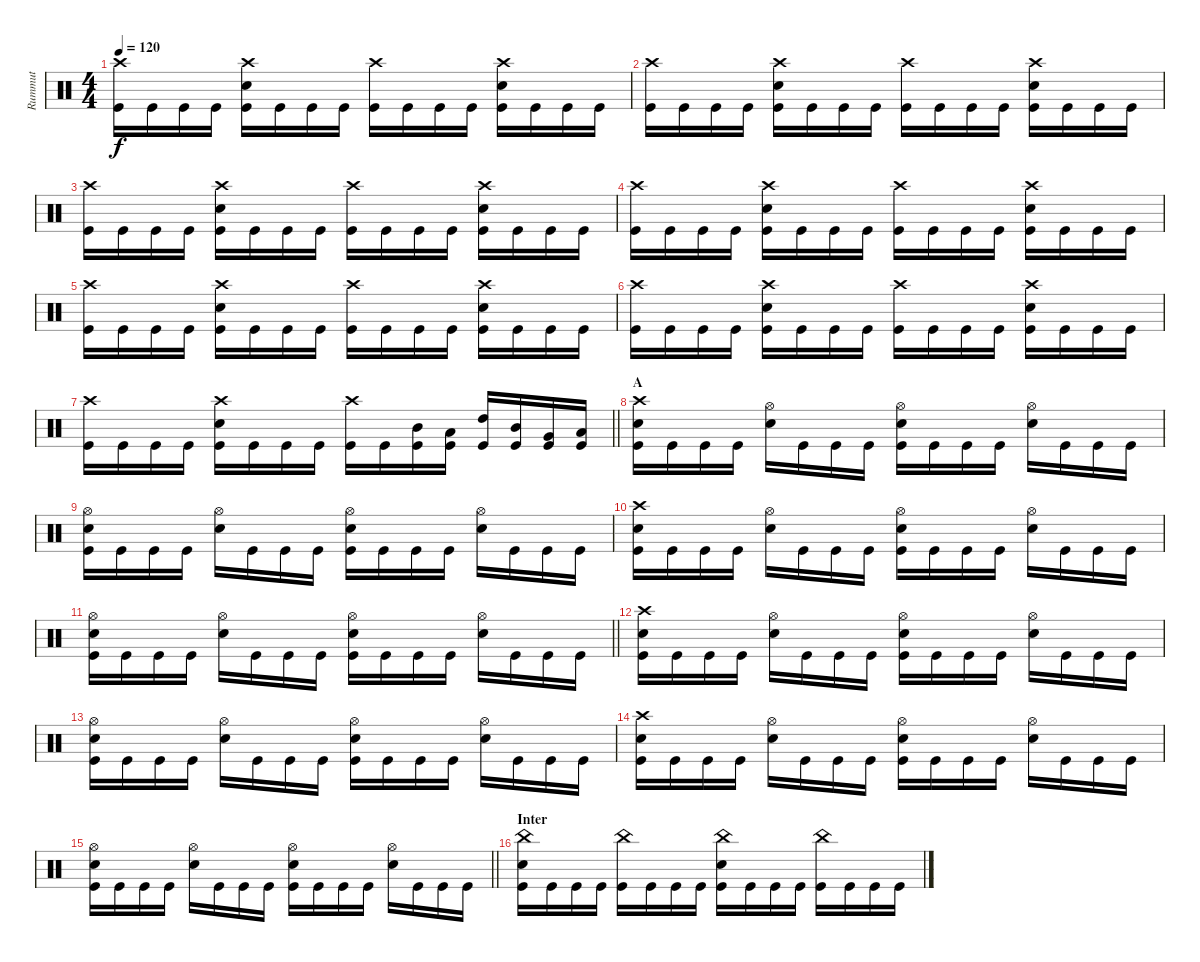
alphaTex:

\track ("Rummut" "Rummut") {instrument percussion}
\staff {score}
\articulation defaults
\ts (4 4)
\tempo 120
\clef neutral
\ks c
("Crash high (hit)" "Kick (hit)").16{dy f} "Kick (hit)".16 "Kick (hit)".16 "Kick (hit)".16 ("Crash high (hit)" "Snare (hit) 2" "Kick (hit)").16 "Kick (hit)".16 "Kick (hit)".16 "Kick (hit)".16 ("Crash high (hit)" "Kick (hit)").16 "Kick (hit)".16 "Kick (hit)".16 "Kick (hit)".16 ("Crash high (hit)" "Snare (hit) 2" "Kick (hit)").16 "Kick (hit)".16 "Kick (hit)".16 "Kick (hit)".16 |
("Crash high (hit)" "Kick (hit)").16 "Kick (hit)".16 "Kick (hit)".16 "Kick (hit)".16 ("Crash high (hit)" "Snare (hit) 2" "Kick (hit)").16 "Kick (hit)".16 "Kick (hit)".16 "Kick (hit)".16 ("Crash high (hit)" "Kick (hit)").16 "Kick (hit)".16 "Kick (hit)".16 "Kick (hit)".16 ("Crash high (hit)" "Snare (hit) 2" "Kick (hit)").16 "Kick (hit)".16 "Kick (hit)".16 "Kick (hit)".16 |
("Crash high (hit)" "Kick (hit)").16 "Kick (hit)".16 "Kick (hit)".16 "Kick (hit)".16 ("Crash high (hit)" "Snare (hit) 2" "Kick (hit)").16 "Kick (hit)".16 "Kick (hit)".16 "Kick (hit)".16 ("Crash high (hit)" "Kick (hit)").16 "Kick (hit)".16 "Kick (hit)".16 "Kick (hit)".16 ("Crash high (hit)" "Snare (hit) 2" "Kick (hit)").16 "Kick (hit)".16 "Kick (hit)".16 "Kick (hit)".16 |
("Crash high (hit)" "Kick (hit)").16 "Kick (hit)".16 "Kick (hit)".16 "Kick (hit)".16 ("Crash high (hit)" "Snare (hit) 2" "Kick (hit)").16 "Kick (hit)".16 "Kick (hit)".16 "Kick (hit)".16 ("Crash high (hit)" "Kick (hit)").16 "Kick (hit)".16 "Kick (hit)".16 "Kick (hit)".16 ("Crash high (hit)" "Snare (hit) 2" "Kick (hit)").16 "Kick (hit)".16 "Kick (hit)".16 "Kick (hit)".16 |
("Crash high (hit)" "Kick (hit)").16 "Kick (hit)".16 "Kick (hit)".16 "Kick (hit)".16 ("Crash high (hit)" "Snare (hit) 2" "Kick (hit)").16 "Kick (hit)".16 "Kick (hit)".16 "Kick (hit)".16 ("Crash high (hit)" "Kick (hit)").16 "Kick (hit)".16 "Kick (hit)".16 "Kick (hit)".16 ("Crash high (hit)" "Snare (hit) 2" "Kick (hit)").16 "Kick (hit)".16 "Kick (hit)".16 "Kick (hit)".16 |
("Crash high (hit)" "Kick (hit)").16 "Kick (hit)".16 "Kick (hit)".16 "Kick (hit)".16 ("Crash high (hit)" "Snare (hit) 2" "Kick (hit)").16 "Kick (hit)".16 "Kick (hit)".16 "Kick (hit)".16 ("Crash high (hit)" "Kick (hit)").16 "Kick (hit)".16 "Kick (hit)".16 "Kick (hit)".16 ("Crash high (hit)" "Snare (hit) 2" "Kick (hit)").16 "Kick (hit)".16 "Kick (hit)".16 "Kick (hit)".16 |
\barLineRight lightlight
("Crash high (hit)" "Kick (hit)").16 "Kick (hit)".16 "Kick (hit)".16 "Kick (hit)".16 ("Crash high (hit)" "Snare (hit) 2" "Kick (hit)").16 "Kick (hit)".16 "Kick (hit)".16 "Kick (hit)".16 ("Crash high (hit)" "Kick (hit)").16 "Kick (hit)".16 ("Mid Tom (hit)" "Kick (hit)").16 ("Low Tom (hit)" "Kick (hit)").16 ("High Tom (hit)" "Kick (hit)").16 ("Mid Tom (hit)" "Kick (hit)").16 ("Very Low Tom (hit)" "Kick (hit)").16 ("Low Floor Tom (hit)" "Kick (hit)").16 |
\section ("" "A")
("Kick (hit)" "Snare (hit) 2" "Crash high (hit)").16 "Kick (hit)".16 "Kick (hit)".16 "Kick (hit)".16 ("Snare (hit) 2" "Hi-Hat (open)").16 "Kick (hit)".16 "Kick (hit)".16 "Kick (hit)".16 ("Kick (hit)" "Snare (hit) 2" "Hi-Hat (open)").16 "Kick (hit)".16 "Kick (hit)".16 "Kick (hit)".16 ("Snare (hit) 2" "Hi-Hat (open)").16 "Kick (hit)".16 "Kick (hit)".16 "Kick (hit)".16 |
("Kick (hit)" "Snare (hit) 2" "Hi-Hat (open)").16 "Kick (hit)".16 "Kick (hit)".16 "Kick (hit)".16 ("Snare (hit) 2" "Hi-Hat (open)").16 "Kick (hit)".16 "Kick (hit)".16 "Kick (hit)".16 ("Kick (hit)" "Snare (hit) 2" "Hi-Hat (open)").16 "Kick (hit)".16 "Kick (hit)".16 "Kick (hit)".16 ("Snare (hit) 2" "Hi-Hat (open)").16 "Kick (hit)".16 "Kick (hit)".16 "Kick (hit)".16 |
("Kick (hit)" "Snare (hit) 2" "Crash high (hit)").16 "Kick (hit)".16 "Kick (hit)".16 "Kick (hit)".16 ("Snare (hit) 2" "Hi-Hat (open)").16 "Kick (hit)".16 "Kick (hit)".16 "Kick (hit)".16 ("Kick (hit)" "Snare (hit) 2" "Hi-Hat (open)").16 "Kick (hit)".16 "Kick (hit)".16 "Kick (hit)".16 ("Snare (hit) 2" "Hi-Hat (open)").16 "Kick (hit)".16 "Kick (hit)".16 "Kick (hit)".16 |
\barLineRight lightlight
("Kick (hit)" "Snare (hit) 2" "Hi-Hat (open)").16 "Kick (hit)".16 "Kick (hit)".16 "Kick (hit)".16 ("Snare (hit) 2" "Hi-Hat (open)").16 "Kick (hit)".16 "Kick (hit)".16 "Kick (hit)".16 ("Kick (hit)" "Snare (hit) 2" "Hi-Hat (open)").16 "Kick (hit)".16 "Kick (hit)".16 "Kick (hit)".16 ("Snare (hit) 2" "Hi-Hat (open)").16 "Kick (hit)".16 "Kick (hit)".16 "Kick (hit)".16 |
("Kick (hit)" "Snare (hit) 2" "Crash high (hit)").16 "Kick (hit)".16 "Kick (hit)".16 "Kick (hit)".16 ("Snare (hit) 2" "Hi-Hat (open)").16 "Kick (hit)".16 "Kick (hit)".16 "Kick (hit)".16 ("Kick (hit)" "Snare (hit) 2" "Hi-Hat (open)").16 "Kick (hit)".16 "Kick (hit)".16 "Kick (hit)".16 ("Snare (hit) 2" "Hi-Hat (open)").16 "Kick (hit)".16 "Kick (hit)".16 "Kick (hit)".16 |
("Kick (hit)" "Snare (hit) 2" "Hi-Hat (open)").16 "Kick (hit)".16 "Kick (hit)".16 "Kick (hit)".16 ("Snare (hit) 2" "Hi-Hat (open)").16 "Kick (hit)".16 "Kick (hit)".16 "Kick (hit)".16 ("Kick (hit)" "Snare (hit) 2" "Hi-Hat (open)").16 "Kick (hit)".16 "Kick (hit)".16 "Kick (hit)".16 ("Snare (hit) 2" "Hi-Hat (open)").16 "Kick (hit)".16 "Kick (hit)".16 "Kick (hit)".16 |
("Kick (hit)" "Snare (hit) 2" "Crash high (hit)").16 "Kick (hit)".16 "Kick (hit)".16 "Kick (hit)".16 ("Snare (hit) 2" "Hi-Hat (open)").16 "Kick (hit)".16 "Kick (hit)".16 "Kick (hit)".16 ("Kick (hit)" "Snare (hit) 2" "Hi-Hat (open)").16 "Kick (hit)".16 "Kick (hit)".16 "Kick (hit)".16 ("Snare (hit) 2" "Hi-Hat (open)").16 "Kick (hit)".16 "Kick (hit)".16 "Kick (hit)".16 |
\barLineRight lightlight
("Kick (hit)" "Snare (hit) 2" "Hi-Hat (open)").16 "Kick (hit)".16 "Kick (hit)".16 "Kick (hit)".16 ("Snare (hit) 2" "Hi-Hat (open)").16 "Kick (hit)".16 "Kick (hit)".16 "Kick (hit)".16 ("Kick (hit)" "Snare (hit) 2" "Hi-Hat (open)").16 "Kick (hit)".16 "Kick (hit)".16 "Kick (hit)".16 ("Snare (hit) 2" "Hi-Hat (open)").16 "Kick (hit)".16 "Kick (hit)".16 "Kick (hit)".16 |
\section ("" "Inter")
("Kick (hit)" "Snare (hit) 2" "China (hit)").16 "Kick (hit)".16 "Kick (hit)".16 "Kick (hit)".16 ("Kick (hit)" "China (hit)").16 "Kick (hit)".16 "Kick (hit)".16 "Kick (hit)".16 ("Kick (hit)" "Snare (hit) 2" "China (hit)").16 "Kick (hit)".16 "Kick (hit)".16 "Kick (hit)".16 ("Kick (hit)" "China (hit)").16 "Kick (hit)".16 "Kick (hit)".16 "Kick (hit)".16
